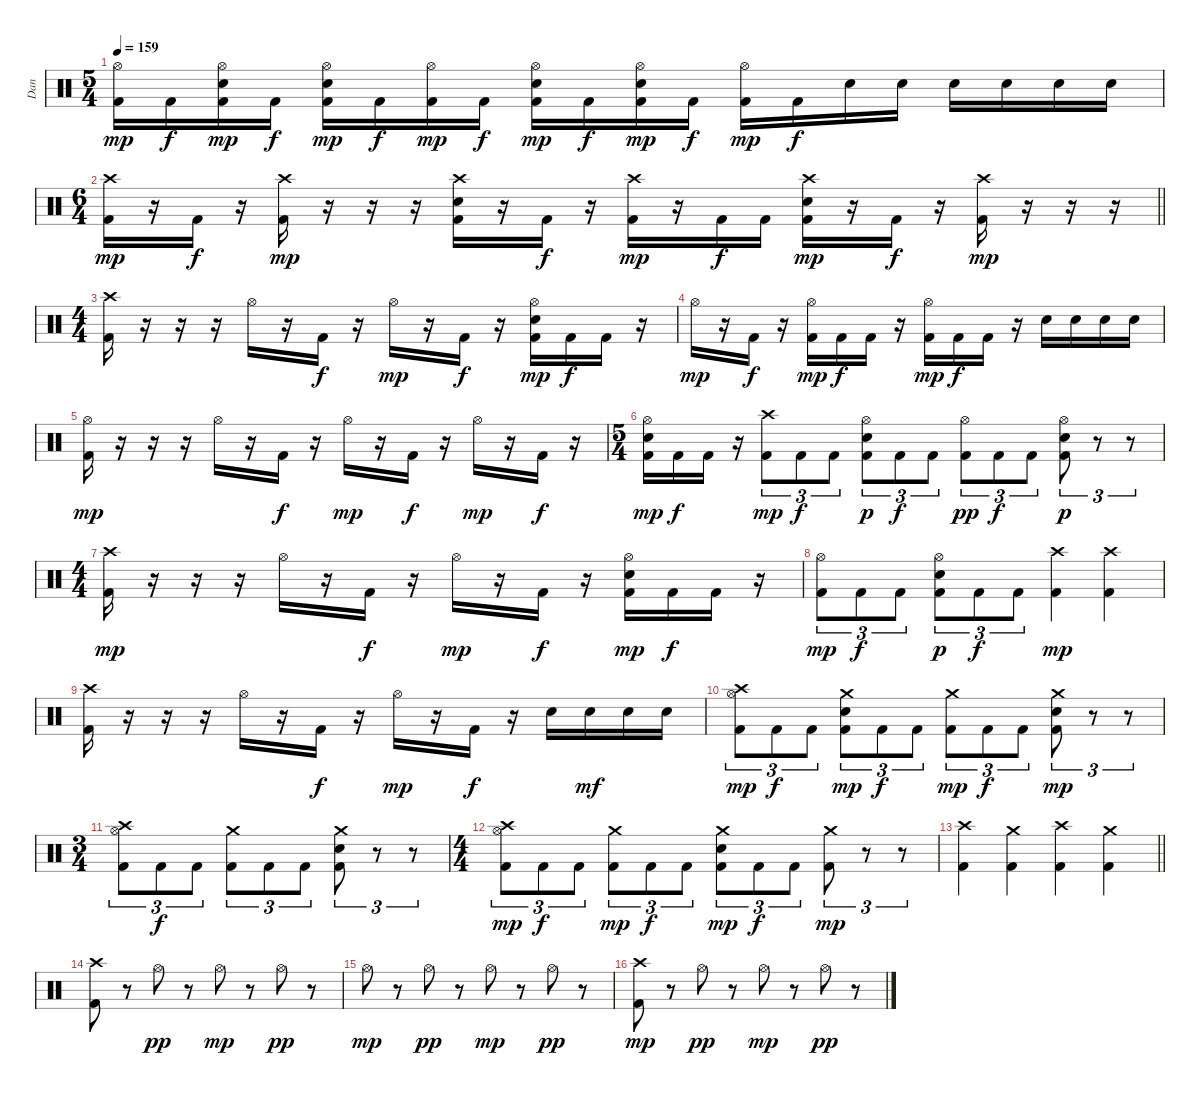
\track ("Dan" "Dan") {instrument percussion}
\staff {score}
\articulation defaults
\ts (5 4)
\tempo 159
\clef neutral
\ks c
("Hi-Hat (open)" "Kick (hit) 2").16{dy mp} "Kick (hit) 2".16{dy f} ("Hi-Hat (open)" "Snare (hit) 2" "Kick (hit) 2").16{dy mp} "Kick (hit) 2".16{dy f} ("Hi-Hat (open)" "Snare (hit) 2" "Kick (hit) 2").16{dy mp} "Kick (hit) 2".16{dy f} ("Hi-Hat (open)" "Kick (hit) 2").16{dy mp} "Kick (hit) 2".16{dy f} ("Hi-Hat (open)" "Snare (hit) 2" "Kick (hit) 2").16{dy mp} "Kick (hit) 2".16{dy f} ("Hi-Hat (open)" "Snare (hit) 2" "Kick (hit) 2").16{dy mp} "Kick (hit) 2".16{dy f} ("Hi-Hat (open)" "Kick (hit) 2").16{dy mp} "Kick (hit) 2".16{dy f} "Snare (hit) 2".16 "Snare (hit) 2".16 "Snare (hit) 2".16 "Snare (hit) 2".16 "Snare (hit) 2".16 "Snare (hit) 2".16 |
\ts (6 4)
\barLineRight lightlight
("Crash high (hit)" "Kick (hit) 2").16{dy mp} r.16 "Kick (hit) 2".16{dy f} r.16 ("Crash high (hit)" "Kick (hit) 2").16{dy mp} r.16 r.16 r.16 ("Crash high (hit)" "Snare (hit) 2" "Kick (hit) 2").16 r.16 "Kick (hit) 2".16{dy f} r.16 ("Crash high (hit)" "Kick (hit) 2").16{dy mp} r.16 "Kick (hit) 2".16{dy f} "Kick (hit) 2".16 ("Crash high (hit)" "Snare (hit) 2" "Kick (hit) 2").16{dy mp} r.16 "Kick (hit) 2".16{dy f} r.16 ("Crash high (hit)" "Kick (hit) 2").16{dy mp} r.16 r.16 r.16 |
\ts (4 4)
("Crash high (hit)" "Kick (hit) 2").16 r.16 r.16 r.16 "Hi-Hat (open)".16 r.16 "Kick (hit) 2".16{dy f} r.16 "Hi-Hat (open)".16{dy mp} r.16 "Kick (hit) 2".16{dy f} r.16 ("Hi-Hat (open)" "Snare (hit) 2" "Kick (hit) 2").16{dy mp} "Kick (hit) 2".16{dy f} "Kick (hit) 2".16 r.16 |
"Hi-Hat (open)".16{dy mp} r.16 "Kick (hit) 2".16{dy f} r.16 ("Hi-Hat (open)" "Kick (hit) 2").16{dy mp} "Kick (hit) 2".16{dy f} "Kick (hit) 2".16 r.16 ("Hi-Hat (open)" "Kick (hit) 2").16{dy mp} "Kick (hit) 2".16{dy f} "Kick (hit) 2".16 r.16 "Snare (hit) 2".16 "Snare (hit) 2".16 "Snare (hit) 2".16 "Snare (hit) 2".16 |
("Hi-Hat (open)" "Kick (hit) 2").16{dy mp} r.16 r.16 r.16 "Hi-Hat (open)".16 r.16 "Kick (hit) 2".16{dy f} r.16 "Hi-Hat (open)".16{dy mp} r.16 "Kick (hit) 2".16{dy f} r.16 "Hi-Hat (open)".16{dy mp} r.16 "Kick (hit) 2".16{dy f} r.16 |
\ts (5 4)
("Hi-Hat (open)" "Snare (hit) 2" "Kick (hit) 2").16{dy mp} "Kick (hit) 2".16{dy f} "Kick (hit) 2".16 r.16 ("Crash high (hit)" "Kick (hit) 2").8{tu (3 2) dy mp} "Kick (hit) 2".8{tu (3 2) dy f} "Kick (hit) 2".8{tu (3 2)} ("Hi-Hat (open)" "Snare (hit) 2" "Kick (hit) 2").8{tu (3 2) dy p} "Kick (hit) 2".8{tu (3 2) dy f} "Kick (hit) 2".8{tu (3 2)} ("Hi-Hat (open)" "Kick (hit) 2").8{tu (3 2) dy pp} "Kick (hit) 2".8{tu (3 2) dy f} "Kick (hit) 2".8{tu (3 2)} ("Hi-Hat (open)" "Snare (hit) 2" "Kick (hit) 2").8{tu (3 2) dy p} r.8{tu (3 2)} r.8{tu (3 2)} |
\ts (4 4)
("Crash high (hit)" "Kick (hit) 2").16{dy mp} r.16 r.16 r.16 "Hi-Hat (open)".16 r.16 "Kick (hit) 2".16{dy f} r.16 "Hi-Hat (open)".16{dy mp} r.16 "Kick (hit) 2".16{dy f} r.16 ("Hi-Hat (open)" "Snare (hit) 2" "Kick (hit) 2").16{dy mp} "Kick (hit) 2".16{dy f} "Kick (hit) 2".16 r.16 |
("Hi-Hat (open)" "Kick (hit) 2").8{tu (3 2) dy mp} "Kick (hit) 2".8{tu (3 2) dy f} "Kick (hit) 2".8{tu (3 2)} ("Hi-Hat (open)" "Snare (hit) 2" "Kick (hit) 2").8{tu (3 2) dy p} "Kick (hit) 2".8{tu (3 2) dy f} "Kick (hit) 2".8{tu (3 2)} ("Crash high (hit)" "Kick (hit) 2").4{dy mp} ("Crash high (hit)" "Kick (hit) 2").4 |
("Crash high (hit)" "Kick (hit) 2").16 r.16 r.16 r.16 "Hi-Hat (open)".16 r.16 "Kick (hit) 2".16{dy f} r.16 "Hi-Hat (open)".16{dy mp} r.16 "Kick (hit) 2".16{dy f} r.16 "Snare (hit) 2".16 "Snare (hit) 2".16{dy mf} "Snare (hit) 2".16 "Snare (hit) 2".16 |
("Crash high (hit)" "Hi-Hat (open)" "Kick (hit) 2").8{tu (3 2) dy mp} "Kick (hit) 2".8{tu (3 2) dy f} "Kick (hit) 2".8{tu (3 2)} ("Crash medium (hit)" "Snare (hit) 2" "Kick (hit) 2").8{tu (3 2) dy mp} "Kick (hit) 2".8{tu (3 2) dy f} "Kick (hit) 2".8{tu (3 2)} ("Crash medium (hit)" "Kick (hit) 2").8{tu (3 2) dy mp} "Kick (hit) 2".8{tu (3 2) dy f} "Kick (hit) 2".8{tu (3 2)} ("Crash medium (hit)" "Snare (hit) 2" "Kick (hit) 2").8{tu (3 2) dy mp} r.8{tu (3 2)} r.8{tu (3 2)} |
\ts (3 4)
("Crash high (hit)" "Hi-Hat (open)" "Kick (hit) 2").8{tu (3 2)} "Kick (hit) 2".8{tu (3 2) dy f} "Kick (hit) 2".8{tu (3 2)} ("Crash medium (hit)" "Kick (hit) 2").8{tu (3 2)} "Kick (hit) 2".8{tu (3 2)} "Kick (hit) 2".8{tu (3 2)} ("Crash medium (hit)" "Snare (hit) 2" "Kick (hit) 2").8{tu (3 2)} r.8{tu (3 2)} r.8{tu (3 2)} |
\ts (4 4)
("Crash high (hit)" "Hi-Hat (open)" "Kick (hit) 2").8{tu (3 2) dy mp} "Kick (hit) 2".8{tu (3 2) dy f} "Kick (hit) 2".8{tu (3 2)} ("Crash medium (hit)" "Kick (hit) 2").8{tu (3 2) dy mp} "Kick (hit) 2".8{tu (3 2) dy f} "Kick (hit) 2".8{tu (3 2)} ("Crash medium (hit)" "Snare (hit) 2" "Kick (hit) 2").8{tu (3 2) dy mp} "Kick (hit) 2".8{tu (3 2) dy f} "Kick (hit) 2".8{tu (3 2)} ("Crash medium (hit)" "Kick (hit) 2").8{tu (3 2) dy mp} r.8{tu (3 2)} r.8{tu (3 2)} |
\barLineRight lightlight
("Crash high (hit)" "Kick (hit) 2").4 ("Crash medium (hit)" "Kick (hit) 2").4 ("Crash high (hit)" "Kick (hit) 2").4 ("Crash medium (hit)" "Kick (hit) 2").4 |
("Crash high (hit)" "Kick (hit) 2").8 r.8 "Hi-Hat (open)".8{dy pp} r.8 "Hi-Hat (open)".8{dy mp} r.8 "Hi-Hat (open)".8{dy pp} r.8 |
"Hi-Hat (open)".8{dy mp} r.8 "Hi-Hat (open)".8{dy pp} r.8 "Hi-Hat (open)".8{dy mp} r.8 "Hi-Hat (open)".8{dy pp} r.8 |
("Crash high (hit)" "Kick (hit) 2").8{dy mp} r.8 "Hi-Hat (open)".8{dy pp} r.8 "Hi-Hat (open)".8{dy mp} r.8 "Hi-Hat (open)".8{dy pp} r.8
